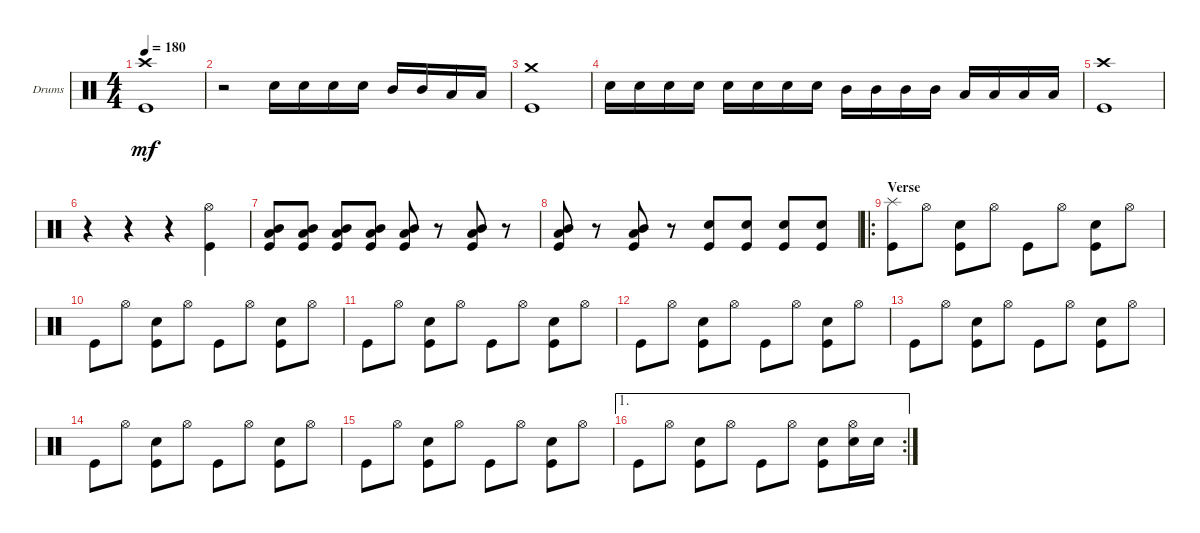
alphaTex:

\defaultSystemsLayout 4
\bracketExtendMode groupsimilarinstruments
\firstSystemTrackNameOrientation horizontal
\otherSystemsTrackNameOrientation horizontal
\track ("Drums" "Drums") {instrument percussion}
\staff {score}
\articulation defaults
\ts (4 4)
\tempo 180
\clef neutral
\scale
0.333333
\ks c
("Kick (hit)" "Crash high (hit)").1{dy mf} |
\scale
0.333333 r.2 "Snare (hit) 2".16 "Snare (hit) 2".16 "Snare (hit) 2".16 "Snare (hit) 2".16 "Mid Tom (hit)".16 "Mid Tom (hit)".16 "Low Tom (hit)".16 "Low Tom (hit)".16 |
\scale
0.333333 ("Kick (hit)" "Crash medium (hit)").1 |
"Snare (hit) 2".16 "Snare (hit) 2".16 "Snare (hit) 2".16 "Snare (hit) 2".16 "Snare (hit) 2".16 "Snare (hit) 2".16 "Snare (hit) 2".16 "Snare (hit) 2".16 "Mid Tom (hit)".16 "Mid Tom (hit)".16 "Mid Tom (hit)".16 "Mid Tom (hit)".16 "Low Tom (hit)".16 "Low Tom (hit)".16 "Low Tom (hit)".16 "Low Tom (hit)".16 |
\scale
0.333333 ("Kick (hit)" "Crash high (hit)").1 |
\scale
0.333333 r.4 r.4 r.4 ("Kick (hit)" "Hi-Hat (open)").4 |
\scale
0.333333 ("Kick (hit)" "Mid Tom (hit)" "Low Tom (hit)").8 ("Kick (hit)" "Mid Tom (hit)" "Low Tom (hit)").8 ("Kick (hit)" "Mid Tom (hit)" "Low Tom (hit)").8 ("Kick (hit)" "Mid Tom (hit)" "Low Tom (hit)").8 ("Kick (hit)" "Mid Tom (hit)" "Low Tom (hit)").8 r.8 ("Kick (hit)" "Mid Tom (hit)" "Low Tom (hit)").8 r.8 |
\scale
0.333333 ("Kick (hit)" "Mid Tom (hit)" "Low Tom (hit)").8 r.8 ("Kick (hit)" "Mid Tom (hit)" "Low Tom (hit)").8 r.8 ("Kick (hit)" "Snare (hit) 2").8 ("Kick (hit)" "Snare (hit) 2").8 ("Kick (hit)" "Snare (hit) 2").8 ("Kick (hit)" "Snare (hit) 2").8 |
\ro
\section ("" "Verse")
\scale
0.333333 ("Kick (hit)" "Splash (hit)").8 "Hi-Hat (open)".8 ("Snare (hit) 2" "Kick (hit)").8 "Hi-Hat (open)".8 "Kick (hit)".8 "Hi-Hat (open)".8 ("Snare (hit) 2" "Kick (hit)").8 "Hi-Hat (open)".8 |
\scale
0.333333 "Kick (hit)".8 "Hi-Hat (open)".8 ("Snare (hit) 2" "Kick (hit)").8 "Hi-Hat (open)".8 "Kick (hit)".8 "Hi-Hat (open)".8 ("Snare (hit) 2" "Kick (hit)").8 "Hi-Hat (open)".8 |
\scale
0.333333 "Kick (hit)".8 "Hi-Hat (open)".8 ("Snare (hit) 2" "Kick (hit)").8 "Hi-Hat (open)".8 "Kick (hit)".8 "Hi-Hat (open)".8 ("Snare (hit) 2" "Kick (hit)").8 "Hi-Hat (open)".8 |
\scale
0.333333 "Kick (hit)".8 "Hi-Hat (open)".8 ("Snare (hit) 2" "Kick (hit)").8 "Hi-Hat (open)".8 "Kick (hit)".8 "Hi-Hat (open)".8 ("Snare (hit) 2" "Kick (hit)").8 "Hi-Hat (open)".8 |
\scale
0.333333 "Kick (hit)".8 "Hi-Hat (open)".8 ("Snare (hit) 2" "Kick (hit)").8 "Hi-Hat (open)".8 "Kick (hit)".8 "Hi-Hat (open)".8 ("Snare (hit) 2" "Kick (hit)").8 "Hi-Hat (open)".8 |
\scale
0.333333 "Kick (hit)".8 "Hi-Hat (open)".8 ("Snare (hit) 2" "Kick (hit)").8 "Hi-Hat (open)".8 "Kick (hit)".8 "Hi-Hat (open)".8 ("Snare (hit) 2" "Kick (hit)").8 "Hi-Hat (open)".8 |
\scale
0.333333 "Kick (hit)".8 "Hi-Hat (open)".8 ("Snare (hit) 2" "Kick (hit)").8 "Hi-Hat (open)".8 "Kick (hit)".8 "Hi-Hat (open)".8 ("Snare (hit) 2" "Kick (hit)").8 "Hi-Hat (open)".8 |
\ae 1
\rc 2
\scale
0.333333 "Kick (hit)".8 "Hi-Hat (open)".8 ("Snare (hit) 2" "Kick (hit)").8 "Hi-Hat (open)".8 "Kick (hit)".8 "Hi-Hat (open)".8 ("Snare (hit) 2" "Kick (hit)").8 ("Hi-Hat (open)" "Snare (hit) 2").16 "Snare (hit) 2".16
